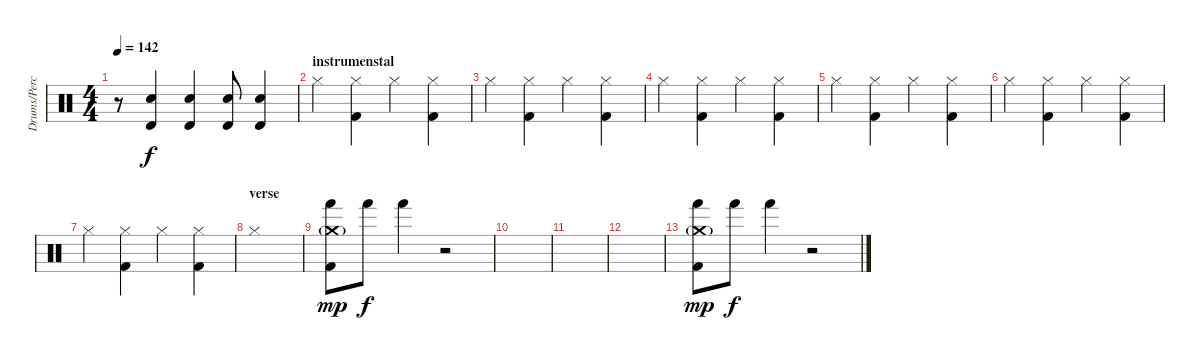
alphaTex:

\track ("Drums/Percussion (Bengerg)" "Drums/Perc") {instrument percussion}
\staff {score}
\articulation defaults
\ts (4 4)
\tempo 142
\clef neutral
\ks c
r.8{dy f} ("Electric Snare (hit)" "Timbale high (hit)").4 ("Electric Snare (hit)" "Timbale high (hit)").4 ("Electric Snare (hit)" "Timbale high (hit)").8 ("Electric Snare (hit)" "Timbale high (hit)").4 |
\section ("" "instrumenstal")
"Hi-Hat (closed)".4 ("Hi-Hat (closed)" "Kick (hit) 2").4 "Hi-Hat (closed)".4 ("Hi-Hat (closed)" "Kick (hit) 2").4 |
"Hi-Hat (closed)".4 ("Hi-Hat (closed)" "Kick (hit) 2").4 "Hi-Hat (closed)".4 ("Hi-Hat (closed)" "Kick (hit) 2").4 |
"Hi-Hat (closed)".4 ("Hi-Hat (closed)" "Kick (hit) 2").4 "Hi-Hat (closed)".4 ("Hi-Hat (closed)" "Kick (hit) 2").4 |
"Hi-Hat (closed)".4 ("Hi-Hat (closed)" "Kick (hit) 2").4 "Hi-Hat (closed)".4 ("Hi-Hat (closed)" "Kick (hit) 2").4 |
"Hi-Hat (closed)".4 ("Hi-Hat (closed)" "Kick (hit) 2").4 "Hi-Hat (closed)".4 ("Hi-Hat (closed)" "Kick (hit) 2").4 |
"Hi-Hat (closed)".4 ("Hi-Hat (closed)" "Kick (hit) 2").4 "Hi-Hat (closed)".4 ("Hi-Hat (closed)" "Kick (hit) 2").4 |
\section ("" "verse")
"Hi-Hat (closed)".1 |
("Crash medium (hit)"{g} "Hand (hit)" "Kick (hit) 2").8{dy mp} "Hand (hit)".8{dy f} "Hand (hit)".4 r.2 |
|
|
|
("Crash medium (hit)"{g} "Hand (hit)" "Kick (hit) 2").8{dy mp} "Hand (hit)".8{dy f} "Hand (hit)".4 r.2
